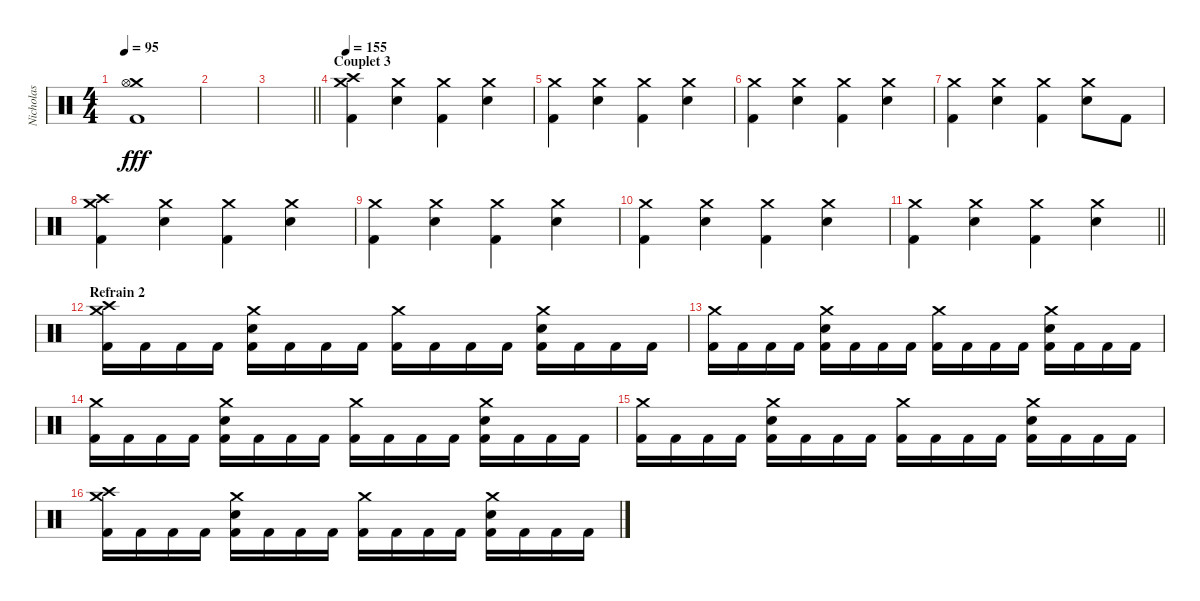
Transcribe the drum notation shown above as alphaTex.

\track ("Nicholas" "Nicholas") {instrument percussion}
\staff {score}
\articulation defaults
\ts (4 4)
\tempo 95
\clef neutral
\ks c
("Crash medium (hit)" "Hi-Hat (open)" "Kick (hit) 2").1{dy fff} |
|
\barLineRight lightlight
|
\section ("" "Couplet 3")
\tempo 155
("Crash medium (hit)" "Crash high (hit)" "Kick (hit) 2").4 ("Crash medium (hit)" "Electric Snare (hit)").4 ("Crash medium (hit)" "Kick (hit) 2").4 ("Crash medium (hit)" "Electric Snare (hit)").4 |
("Crash medium (hit)" "Kick (hit) 2").4 ("Crash medium (hit)" "Electric Snare (hit)").4 ("Crash medium (hit)" "Kick (hit) 2").4 ("Crash medium (hit)" "Electric Snare (hit)").4 |
("Crash medium (hit)" "Kick (hit) 2").4 ("Crash medium (hit)" "Electric Snare (hit)").4 ("Crash medium (hit)" "Kick (hit) 2").4 ("Crash medium (hit)" "Electric Snare (hit)").4 |
("Crash medium (hit)" "Kick (hit) 2").4 ("Crash medium (hit)" "Electric Snare (hit)").4 ("Crash medium (hit)" "Kick (hit) 2").4 ("Crash medium (hit)" "Electric Snare (hit)").8 "Kick (hit) 2".8 |
("Crash medium (hit)" "Crash high (hit)" "Kick (hit) 2").4 ("Crash medium (hit)" "Electric Snare (hit)").4 ("Crash medium (hit)" "Kick (hit) 2").4 ("Crash medium (hit)" "Electric Snare (hit)").4 |
("Crash medium (hit)" "Kick (hit) 2").4 ("Crash medium (hit)" "Electric Snare (hit)").4 ("Crash medium (hit)" "Kick (hit) 2").4 ("Crash medium (hit)" "Electric Snare (hit)").4 |
("Crash medium (hit)" "Kick (hit) 2").4 ("Crash medium (hit)" "Electric Snare (hit)").4 ("Crash medium (hit)" "Kick (hit) 2").4 ("Crash medium (hit)" "Electric Snare (hit)").4 |
\barLineRight lightlight
("Crash medium (hit)" "Kick (hit) 2").4 ("Crash medium (hit)" "Electric Snare (hit)").4 ("Crash medium (hit)" "Kick (hit) 2").4 ("Crash medium (hit)" "Electric Snare (hit)").4 |
\section ("" "Refrain 2")
("Crash medium (hit)" "Crash high (hit)" "Kick (hit) 2").16 "Kick (hit) 2".16 "Kick (hit) 2".16 "Kick (hit) 2".16 ("Crash medium (hit)" "Electric Snare (hit)" "Kick (hit) 2").16 "Kick (hit) 2".16 "Kick (hit) 2".16 "Kick (hit) 2".16 ("Crash medium (hit)" "Kick (hit) 2").16 "Kick (hit) 2".16 "Kick (hit) 2".16 "Kick (hit) 2".16 ("Crash medium (hit)" "Electric Snare (hit)" "Kick (hit) 2").16 "Kick (hit) 2".16 "Kick (hit) 2".16 "Kick (hit) 2".16 |
("Crash medium (hit)" "Kick (hit) 2").16 "Kick (hit) 2".16 "Kick (hit) 2".16 "Kick (hit) 2".16 ("Crash medium (hit)" "Electric Snare (hit)" "Kick (hit) 2").16 "Kick (hit) 2".16 "Kick (hit) 2".16 "Kick (hit) 2".16 ("Crash medium (hit)" "Kick (hit) 2").16 "Kick (hit) 2".16 "Kick (hit) 2".16 "Kick (hit) 2".16 ("Crash medium (hit)" "Electric Snare (hit)" "Kick (hit) 2").16 "Kick (hit) 2".16 "Kick (hit) 2".16 "Kick (hit) 2".16 |
("Crash medium (hit)" "Kick (hit) 2").16 "Kick (hit) 2".16 "Kick (hit) 2".16 "Kick (hit) 2".16 ("Crash medium (hit)" "Electric Snare (hit)" "Kick (hit) 2").16 "Kick (hit) 2".16 "Kick (hit) 2".16 "Kick (hit) 2".16 ("Crash medium (hit)" "Kick (hit) 2").16 "Kick (hit) 2".16 "Kick (hit) 2".16 "Kick (hit) 2".16 ("Crash medium (hit)" "Electric Snare (hit)" "Kick (hit) 2").16 "Kick (hit) 2".16 "Kick (hit) 2".16 "Kick (hit) 2".16 |
("Crash medium (hit)" "Kick (hit) 2").16 "Kick (hit) 2".16 "Kick (hit) 2".16 "Kick (hit) 2".16 ("Crash medium (hit)" "Electric Snare (hit)" "Kick (hit) 2").16 "Kick (hit) 2".16 "Kick (hit) 2".16 "Kick (hit) 2".16 ("Crash medium (hit)" "Kick (hit) 2").16 "Kick (hit) 2".16 "Kick (hit) 2".16 "Kick (hit) 2".16 ("Crash medium (hit)" "Electric Snare (hit)" "Kick (hit) 2").16 "Kick (hit) 2".16 "Kick (hit) 2".16 "Kick (hit) 2".16 |
("Crash medium (hit)" "Crash high (hit)" "Kick (hit) 2").16 "Kick (hit) 2".16 "Kick (hit) 2".16 "Kick (hit) 2".16 ("Crash medium (hit)" "Electric Snare (hit)" "Kick (hit) 2").16 "Kick (hit) 2".16 "Kick (hit) 2".16 "Kick (hit) 2".16 ("Crash medium (hit)" "Kick (hit) 2").16 "Kick (hit) 2".16 "Kick (hit) 2".16 "Kick (hit) 2".16 ("Crash medium (hit)" "Electric Snare (hit)" "Kick (hit) 2").16 "Kick (hit) 2".16 "Kick (hit) 2".16 "Kick (hit) 2".16
